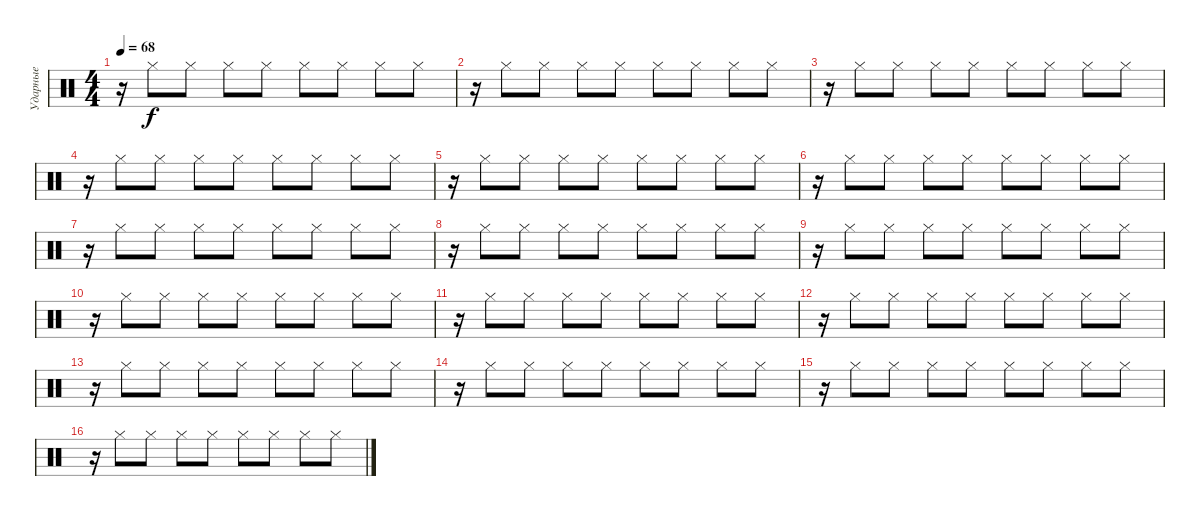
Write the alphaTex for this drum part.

\track ("Ударные" "Ударные") {instrument percussion}
\staff {score}
\articulation defaults
\ts (4 4)
\tempo 68
\clef neutral
\ks c
r.16{dy f} "Hi-Hat (closed)".8 "Hi-Hat (closed)".8 "Hi-Hat (closed)".8 "Hi-Hat (closed)".8 "Hi-Hat (closed)".8 "Hi-Hat (closed)".8 "Hi-Hat (closed)".8 "Hi-Hat (closed)".8 |
r.16 "Hi-Hat (closed)".8 "Hi-Hat (closed)".8 "Hi-Hat (closed)".8 "Hi-Hat (closed)".8 "Hi-Hat (closed)".8 "Hi-Hat (closed)".8 "Hi-Hat (closed)".8 "Hi-Hat (closed)".8 |
r.16 "Hi-Hat (closed)".8 "Hi-Hat (closed)".8 "Hi-Hat (closed)".8 "Hi-Hat (closed)".8 "Hi-Hat (closed)".8 "Hi-Hat (closed)".8 "Hi-Hat (closed)".8 "Hi-Hat (closed)".8 |
r.16 "Hi-Hat (closed)".8 "Hi-Hat (closed)".8 "Hi-Hat (closed)".8 "Hi-Hat (closed)".8 "Hi-Hat (closed)".8 "Hi-Hat (closed)".8 "Hi-Hat (closed)".8 "Hi-Hat (closed)".8 |
r.16 "Hi-Hat (closed)".8 "Hi-Hat (closed)".8 "Hi-Hat (closed)".8 "Hi-Hat (closed)".8 "Hi-Hat (closed)".8 "Hi-Hat (closed)".8 "Hi-Hat (closed)".8 "Hi-Hat (closed)".8 |
r.16 "Hi-Hat (closed)".8 "Hi-Hat (closed)".8 "Hi-Hat (closed)".8 "Hi-Hat (closed)".8 "Hi-Hat (closed)".8 "Hi-Hat (closed)".8 "Hi-Hat (closed)".8 "Hi-Hat (closed)".8 |
r.16 "Hi-Hat (closed)".8 "Hi-Hat (closed)".8 "Hi-Hat (closed)".8 "Hi-Hat (closed)".8 "Hi-Hat (closed)".8 "Hi-Hat (closed)".8 "Hi-Hat (closed)".8 "Hi-Hat (closed)".8 |
r.16 "Hi-Hat (closed)".8 "Hi-Hat (closed)".8 "Hi-Hat (closed)".8 "Hi-Hat (closed)".8 "Hi-Hat (closed)".8 "Hi-Hat (closed)".8 "Hi-Hat (closed)".8 "Hi-Hat (closed)".8 |
r.16 "Hi-Hat (closed)".8 "Hi-Hat (closed)".8 "Hi-Hat (closed)".8 "Hi-Hat (closed)".8 "Hi-Hat (closed)".8 "Hi-Hat (closed)".8 "Hi-Hat (closed)".8 "Hi-Hat (closed)".8 |
r.16 "Hi-Hat (closed)".8 "Hi-Hat (closed)".8 "Hi-Hat (closed)".8 "Hi-Hat (closed)".8 "Hi-Hat (closed)".8 "Hi-Hat (closed)".8 "Hi-Hat (closed)".8 "Hi-Hat (closed)".8 |
r.16 "Hi-Hat (closed)".8 "Hi-Hat (closed)".8 "Hi-Hat (closed)".8 "Hi-Hat (closed)".8 "Hi-Hat (closed)".8 "Hi-Hat (closed)".8 "Hi-Hat (closed)".8 "Hi-Hat (closed)".8 |
r.16 "Hi-Hat (closed)".8 "Hi-Hat (closed)".8 "Hi-Hat (closed)".8 "Hi-Hat (closed)".8 "Hi-Hat (closed)".8 "Hi-Hat (closed)".8 "Hi-Hat (closed)".8 "Hi-Hat (closed)".8 |
r.16 "Hi-Hat (closed)".8 "Hi-Hat (closed)".8 "Hi-Hat (closed)".8 "Hi-Hat (closed)".8 "Hi-Hat (closed)".8 "Hi-Hat (closed)".8 "Hi-Hat (closed)".8 "Hi-Hat (closed)".8 |
r.16 "Hi-Hat (closed)".8 "Hi-Hat (closed)".8 "Hi-Hat (closed)".8 "Hi-Hat (closed)".8 "Hi-Hat (closed)".8 "Hi-Hat (closed)".8 "Hi-Hat (closed)".8 "Hi-Hat (closed)".8 |
r.16 "Hi-Hat (closed)".8 "Hi-Hat (closed)".8 "Hi-Hat (closed)".8 "Hi-Hat (closed)".8 "Hi-Hat (closed)".8 "Hi-Hat (closed)".8 "Hi-Hat (closed)".8 "Hi-Hat (closed)".8 |
r.16 "Hi-Hat (closed)".8 "Hi-Hat (closed)".8 "Hi-Hat (closed)".8 "Hi-Hat (closed)".8 "Hi-Hat (closed)".8 "Hi-Hat (closed)".8 "Hi-Hat (closed)".8 "Hi-Hat (closed)".8
